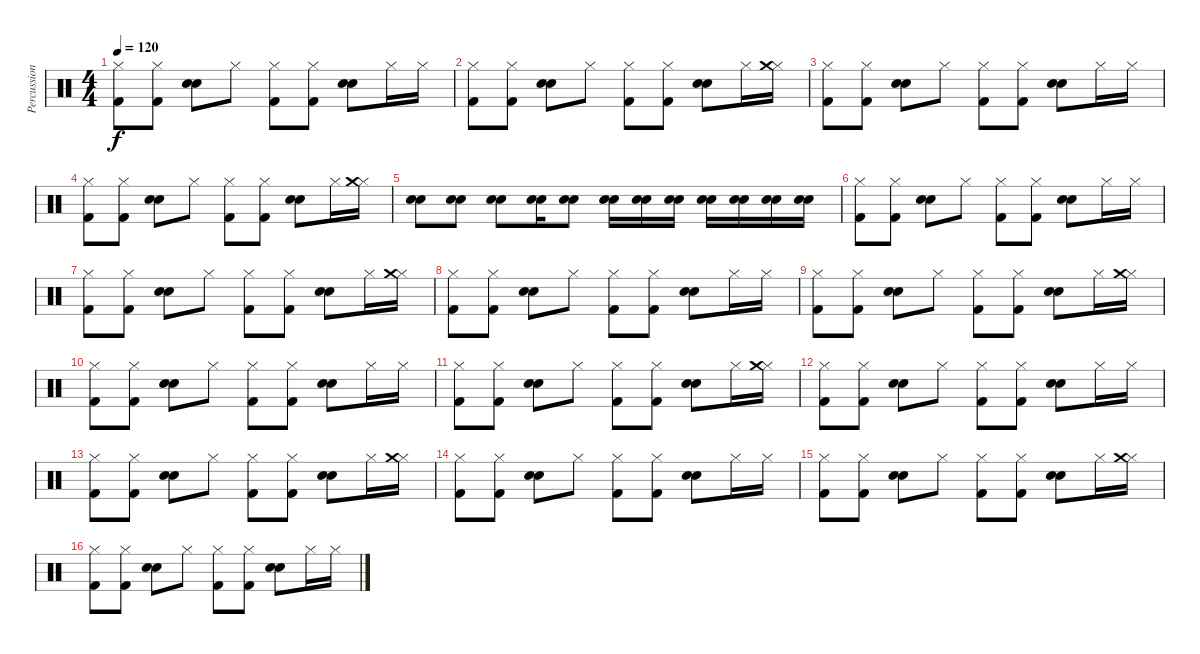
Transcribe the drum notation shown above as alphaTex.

\track ("Percussions" "Percussion") {instrument percussion}
\staff {score}
\articulation defaults
\ts (4 4)
\tempo 120
\clef neutral
\ks c
("Kick (hit) 2" "Hi-Hat (closed)").8{dy f} ("Kick (hit) 2" "Hi-Hat (closed)").8 ("Hand Clap (hit)" "Electric Snare (hit)").8 "Hi-Hat (closed)".8 ("Kick (hit) 2" "Hi-Hat (closed)").8 ("Kick (hit) 2" "Hi-Hat (closed)").8 ("Hand Clap (hit)" "Electric Snare (hit)").8 "Hi-Hat (closed)".16 "Hi-Hat (closed)".16 |
("Kick (hit) 2" "Hi-Hat (closed)").8 ("Kick (hit) 2" "Hi-Hat (closed)").8 ("Hand Clap (hit)" "Electric Snare (hit)").8 "Hi-Hat (closed)".8 ("Kick (hit) 2" "Hi-Hat (closed)").8 ("Kick (hit) 2" "Hi-Hat (closed)").8 ("Hand Clap (hit)" "Electric Snare (hit)").8 "Hi-Hat (closed)".16 ("Hi-Hat (closed)" "Crash medium (hit)").16 |
("Kick (hit) 2" "Hi-Hat (closed)").8 ("Kick (hit) 2" "Hi-Hat (closed)").8 ("Hand Clap (hit)" "Electric Snare (hit)").8 "Hi-Hat (closed)".8 ("Kick (hit) 2" "Hi-Hat (closed)").8 ("Kick (hit) 2" "Hi-Hat (closed)").8 ("Hand Clap (hit)" "Electric Snare (hit)").8 "Hi-Hat (closed)".16 "Hi-Hat (closed)".16 |
("Kick (hit) 2" "Hi-Hat (closed)").8 ("Kick (hit) 2" "Hi-Hat (closed)").8 ("Hand Clap (hit)" "Electric Snare (hit)").8 "Hi-Hat (closed)".8 ("Kick (hit) 2" "Hi-Hat (closed)").8 ("Kick (hit) 2" "Hi-Hat (closed)").8 ("Hand Clap (hit)" "Electric Snare (hit)").8 "Hi-Hat (closed)".16 ("Hi-Hat (closed)" "Crash medium (hit)").16 |
("Hand Clap (hit)" "Electric Snare (hit)").8 ("Hand Clap (hit)" "Electric Snare (hit)").8 ("Hand Clap (hit)" "Electric Snare (hit)").8 ("Hand Clap (hit)" "Electric Snare (hit)").16 ("Hand Clap (hit)" "Electric Snare (hit)").8 ("Hand Clap (hit)" "Electric Snare (hit)").16 ("Hand Clap (hit)" "Electric Snare (hit)").16 ("Hand Clap (hit)" "Electric Snare (hit)").16 ("Hand Clap (hit)" "Electric Snare (hit)").16 ("Hand Clap (hit)" "Electric Snare (hit)").16 ("Hand Clap (hit)" "Electric Snare (hit)").16 ("Hand Clap (hit)" "Electric Snare (hit)").16 |
("Kick (hit) 2" "Hi-Hat (closed)").8 ("Kick (hit) 2" "Hi-Hat (closed)").8 ("Hand Clap (hit)" "Electric Snare (hit)").8 "Hi-Hat (closed)".8 ("Kick (hit) 2" "Hi-Hat (closed)").8 ("Kick (hit) 2" "Hi-Hat (closed)").8 ("Hand Clap (hit)" "Electric Snare (hit)").8 "Hi-Hat (closed)".16 "Hi-Hat (closed)".16 |
("Kick (hit) 2" "Hi-Hat (closed)").8 ("Kick (hit) 2" "Hi-Hat (closed)").8 ("Hand Clap (hit)" "Electric Snare (hit)").8 "Hi-Hat (closed)".8 ("Kick (hit) 2" "Hi-Hat (closed)").8 ("Kick (hit) 2" "Hi-Hat (closed)").8 ("Hand Clap (hit)" "Electric Snare (hit)").8 "Hi-Hat (closed)".16 ("Hi-Hat (closed)" "Crash medium (hit)").16 |
("Kick (hit) 2" "Hi-Hat (closed)").8 ("Kick (hit) 2" "Hi-Hat (closed)").8 ("Hand Clap (hit)" "Electric Snare (hit)").8 "Hi-Hat (closed)".8 ("Kick (hit) 2" "Hi-Hat (closed)").8 ("Kick (hit) 2" "Hi-Hat (closed)").8 ("Hand Clap (hit)" "Electric Snare (hit)").8 "Hi-Hat (closed)".16 "Hi-Hat (closed)".16 |
("Kick (hit) 2" "Hi-Hat (closed)").8 ("Kick (hit) 2" "Hi-Hat (closed)").8 ("Hand Clap (hit)" "Electric Snare (hit)").8 "Hi-Hat (closed)".8 ("Kick (hit) 2" "Hi-Hat (closed)").8 ("Kick (hit) 2" "Hi-Hat (closed)").8 ("Hand Clap (hit)" "Electric Snare (hit)").8 "Hi-Hat (closed)".16 ("Hi-Hat (closed)" "Crash medium (hit)").16 |
("Kick (hit) 2" "Hi-Hat (closed)").8 ("Kick (hit) 2" "Hi-Hat (closed)").8 ("Hand Clap (hit)" "Electric Snare (hit)").8 "Hi-Hat (closed)".8 ("Kick (hit) 2" "Hi-Hat (closed)").8 ("Kick (hit) 2" "Hi-Hat (closed)").8 ("Hand Clap (hit)" "Electric Snare (hit)").8 "Hi-Hat (closed)".16 "Hi-Hat (closed)".16 |
("Kick (hit) 2" "Hi-Hat (closed)").8 ("Kick (hit) 2" "Hi-Hat (closed)").8 ("Hand Clap (hit)" "Electric Snare (hit)").8 "Hi-Hat (closed)".8 ("Kick (hit) 2" "Hi-Hat (closed)").8 ("Kick (hit) 2" "Hi-Hat (closed)").8 ("Hand Clap (hit)" "Electric Snare (hit)").8 "Hi-Hat (closed)".16 ("Hi-Hat (closed)" "Crash medium (hit)").16 |
("Kick (hit) 2" "Hi-Hat (closed)").8 ("Kick (hit) 2" "Hi-Hat (closed)").8 ("Hand Clap (hit)" "Electric Snare (hit)").8 "Hi-Hat (closed)".8 ("Kick (hit) 2" "Hi-Hat (closed)").8 ("Kick (hit) 2" "Hi-Hat (closed)").8 ("Hand Clap (hit)" "Electric Snare (hit)").8 "Hi-Hat (closed)".16 "Hi-Hat (closed)".16 |
("Kick (hit) 2" "Hi-Hat (closed)").8 ("Kick (hit) 2" "Hi-Hat (closed)").8 ("Hand Clap (hit)" "Electric Snare (hit)").8 "Hi-Hat (closed)".8 ("Kick (hit) 2" "Hi-Hat (closed)").8 ("Kick (hit) 2" "Hi-Hat (closed)").8 ("Hand Clap (hit)" "Electric Snare (hit)").8 "Hi-Hat (closed)".16 ("Hi-Hat (closed)" "Crash medium (hit)").16 |
("Kick (hit) 2" "Hi-Hat (closed)").8 ("Kick (hit) 2" "Hi-Hat (closed)").8 ("Hand Clap (hit)" "Electric Snare (hit)").8 "Hi-Hat (closed)".8 ("Kick (hit) 2" "Hi-Hat (closed)").8 ("Kick (hit) 2" "Hi-Hat (closed)").8 ("Hand Clap (hit)" "Electric Snare (hit)").8 "Hi-Hat (closed)".16 "Hi-Hat (closed)".16 |
("Kick (hit) 2" "Hi-Hat (closed)").8 ("Kick (hit) 2" "Hi-Hat (closed)").8 ("Hand Clap (hit)" "Electric Snare (hit)").8 "Hi-Hat (closed)".8 ("Kick (hit) 2" "Hi-Hat (closed)").8 ("Kick (hit) 2" "Hi-Hat (closed)").8 ("Hand Clap (hit)" "Electric Snare (hit)").8 "Hi-Hat (closed)".16 ("Hi-Hat (closed)" "Crash medium (hit)").16 |
("Kick (hit) 2" "Hi-Hat (closed)").8 ("Kick (hit) 2" "Hi-Hat (closed)").8 ("Hand Clap (hit)" "Electric Snare (hit)").8 "Hi-Hat (closed)".8 ("Kick (hit) 2" "Hi-Hat (closed)").8 ("Kick (hit) 2" "Hi-Hat (closed)").8 ("Hand Clap (hit)" "Electric Snare (hit)").8 "Hi-Hat (closed)".16 "Hi-Hat (closed)".16
